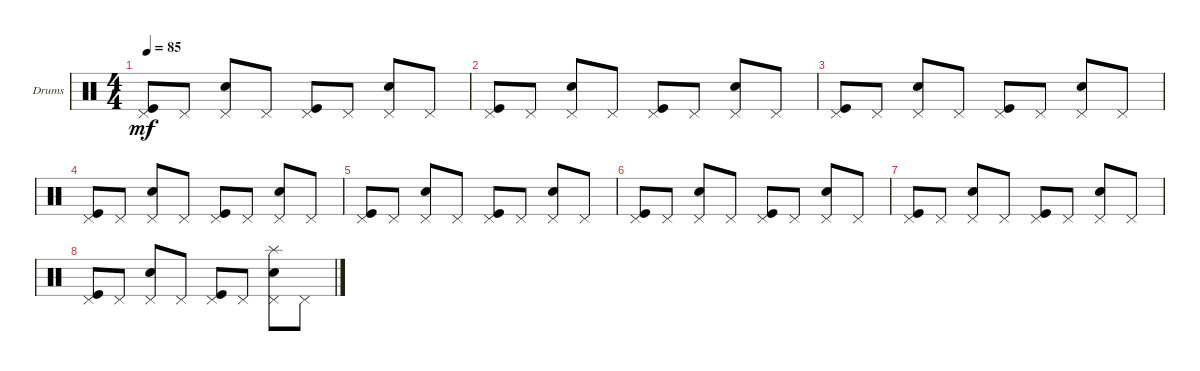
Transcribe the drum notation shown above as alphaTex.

\defaultSystemsLayout 4
\bracketExtendMode groupsimilarinstruments
\firstSystemTrackNameOrientation horizontal
\otherSystemsTrackNameOrientation horizontal
\track ("Drumkit" "Drums") {instrument percussion}
\staff {score}
\articulation defaults
\ts (4 4)
\tempo 85
\clef neutral
\ks c
("Kick (hit)" "Pedal Hi-Hat (hit)").8{dy mf} "Pedal Hi-Hat (hit)".8 ("Snare (hit) 2" "Pedal Hi-Hat (hit)").8 "Pedal Hi-Hat (hit)".8 ("Kick (hit)" "Pedal Hi-Hat (hit)").8 "Pedal Hi-Hat (hit)".8 ("Snare (hit) 2" "Pedal Hi-Hat (hit)").8 "Pedal Hi-Hat (hit)".8 |
("Kick (hit)" "Pedal Hi-Hat (hit)").8 "Pedal Hi-Hat (hit)".8 ("Snare (hit) 2" "Pedal Hi-Hat (hit)").8 "Pedal Hi-Hat (hit)".8 ("Kick (hit)" "Pedal Hi-Hat (hit)").8 "Pedal Hi-Hat (hit)".8 ("Snare (hit) 2" "Pedal Hi-Hat (hit)").8 "Pedal Hi-Hat (hit)".8 |
("Kick (hit)" "Pedal Hi-Hat (hit)").8 "Pedal Hi-Hat (hit)".8 ("Snare (hit) 2" "Pedal Hi-Hat (hit)").8 "Pedal Hi-Hat (hit)".8 ("Kick (hit)" "Pedal Hi-Hat (hit)").8 "Pedal Hi-Hat (hit)".8 ("Snare (hit) 2" "Pedal Hi-Hat (hit)").8 "Pedal Hi-Hat (hit)".8 |
("Kick (hit)" "Pedal Hi-Hat (hit)").8 "Pedal Hi-Hat (hit)".8 ("Snare (hit) 2" "Pedal Hi-Hat (hit)").8 "Pedal Hi-Hat (hit)".8 ("Kick (hit)" "Pedal Hi-Hat (hit)").8 "Pedal Hi-Hat (hit)".8 ("Snare (hit) 2" "Pedal Hi-Hat (hit)").8 "Pedal Hi-Hat (hit)".8 |
("Kick (hit)" "Pedal Hi-Hat (hit)").8 "Pedal Hi-Hat (hit)".8 ("Snare (hit) 2" "Pedal Hi-Hat (hit)").8 "Pedal Hi-Hat (hit)".8 ("Kick (hit)" "Pedal Hi-Hat (hit)").8 "Pedal Hi-Hat (hit)".8 ("Snare (hit) 2" "Pedal Hi-Hat (hit)").8 "Pedal Hi-Hat (hit)".8 |
("Kick (hit)" "Pedal Hi-Hat (hit)").8 "Pedal Hi-Hat (hit)".8 ("Snare (hit) 2" "Pedal Hi-Hat (hit)").8 "Pedal Hi-Hat (hit)".8 ("Kick (hit)" "Pedal Hi-Hat (hit)").8 "Pedal Hi-Hat (hit)".8 ("Snare (hit) 2" "Pedal Hi-Hat (hit)").8 "Pedal Hi-Hat (hit)".8 |
("Kick (hit)" "Pedal Hi-Hat (hit)").8 "Pedal Hi-Hat (hit)".8 ("Snare (hit) 2" "Pedal Hi-Hat (hit)").8 "Pedal Hi-Hat (hit)".8 ("Kick (hit)" "Pedal Hi-Hat (hit)").8 "Pedal Hi-Hat (hit)".8 ("Snare (hit) 2" "Pedal Hi-Hat (hit)").8 "Pedal Hi-Hat (hit)".8 |
("Kick (hit)" "Pedal Hi-Hat (hit)").8 "Pedal Hi-Hat (hit)".8 ("Snare (hit) 2" "Pedal Hi-Hat (hit)").8 "Pedal Hi-Hat (hit)".8 ("Kick (hit)" "Pedal Hi-Hat (hit)").8 "Pedal Hi-Hat (hit)".8 ("Snare (hit) 2" "Pedal Hi-Hat (hit)" "Splash (hit)").8 "Pedal Hi-Hat (hit)".8
